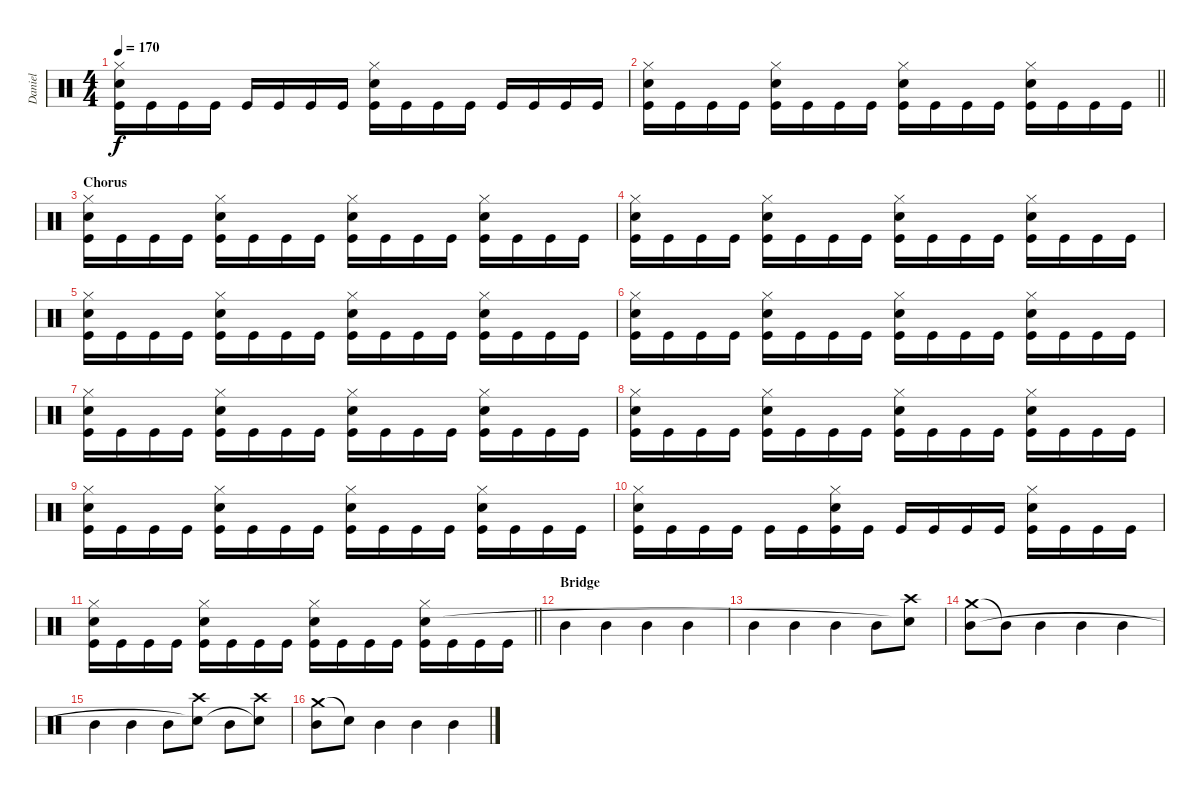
\track ("Daniel" "Daniel") {instrument percussion}
\staff {score}
\articulation defaults
\ts (4 4)
\tempo 170
\clef neutral
\ks c
("Kick (hit)" "Snare (hit) 2" "Hi-Hat (closed)").16{dy f} "Kick (hit)".16 "Kick (hit)".16 "Kick (hit)".16 "Kick (hit)".16 "Kick (hit)".16 "Kick (hit)".16 "Kick (hit)".16 ("Kick (hit)" "Snare (hit) 2" "Hi-Hat (closed)").16 "Kick (hit)".16 "Kick (hit)".16 "Kick (hit)".16 "Kick (hit)".16 "Kick (hit)".16 "Kick (hit)".16 "Kick (hit)".16 |
\barLineRight lightlight
("Kick (hit)" "Snare (hit) 2" "Hi-Hat (closed)").16 "Kick (hit)".16 "Kick (hit)".16 "Kick (hit)".16 ("Kick (hit)" "Snare (hit) 2" "Hi-Hat (closed)").16 "Kick (hit)".16 "Kick (hit)".16 "Kick (hit)".16 ("Kick (hit)" "Snare (hit) 2" "Hi-Hat (closed)").16 "Kick (hit)".16 "Kick (hit)".16 "Kick (hit)".16 ("Kick (hit)" "Snare (hit) 2" "Hi-Hat (closed)").16 "Kick (hit)".16 "Kick (hit)".16 "Kick (hit)".16 |
\section ("" "Chorus")
("Kick (hit)" "Snare (hit) 2" "Hi-Hat (closed)").16 "Kick (hit)".16 "Kick (hit)".16 "Kick (hit)".16 ("Kick (hit)" "Snare (hit) 2" "Hi-Hat (closed)").16 "Kick (hit)".16 "Kick (hit)".16 "Kick (hit)".16 ("Kick (hit)" "Snare (hit) 2" "Hi-Hat (closed)").16 "Kick (hit)".16 "Kick (hit)".16 "Kick (hit)".16 ("Kick (hit)" "Snare (hit) 2" "Hi-Hat (closed)").16 "Kick (hit)".16 "Kick (hit)".16 "Kick (hit)".16 |
("Kick (hit)" "Snare (hit) 2" "Hi-Hat (closed)").16 "Kick (hit)".16 "Kick (hit)".16 "Kick (hit)".16 ("Kick (hit)" "Snare (hit) 2" "Hi-Hat (closed)").16 "Kick (hit)".16 "Kick (hit)".16 "Kick (hit)".16 ("Kick (hit)" "Snare (hit) 2" "Hi-Hat (closed)").16 "Kick (hit)".16 "Kick (hit)".16 "Kick (hit)".16 ("Kick (hit)" "Snare (hit) 2" "Hi-Hat (closed)").16 "Kick (hit)".16 "Kick (hit)".16 "Kick (hit)".16 |
("Kick (hit)" "Snare (hit) 2" "Hi-Hat (closed)").16 "Kick (hit)".16 "Kick (hit)".16 "Kick (hit)".16 ("Kick (hit)" "Snare (hit) 2" "Hi-Hat (closed)").16 "Kick (hit)".16 "Kick (hit)".16 "Kick (hit)".16 ("Kick (hit)" "Snare (hit) 2" "Hi-Hat (closed)").16 "Kick (hit)".16 "Kick (hit)".16 "Kick (hit)".16 ("Kick (hit)" "Snare (hit) 2" "Hi-Hat (closed)").16 "Kick (hit)".16 "Kick (hit)".16 "Kick (hit)".16 |
("Kick (hit)" "Snare (hit) 2" "Hi-Hat (closed)").16 "Kick (hit)".16 "Kick (hit)".16 "Kick (hit)".16 ("Kick (hit)" "Snare (hit) 2" "Hi-Hat (closed)").16 "Kick (hit)".16 "Kick (hit)".16 "Kick (hit)".16 ("Kick (hit)" "Snare (hit) 2" "Hi-Hat (closed)").16 "Kick (hit)".16 "Kick (hit)".16 "Kick (hit)".16 ("Kick (hit)" "Snare (hit) 2" "Hi-Hat (closed)").16 "Kick (hit)".16 "Kick (hit)".16 "Kick (hit)".16 |
("Kick (hit)" "Snare (hit) 2" "Hi-Hat (closed)").16 "Kick (hit)".16 "Kick (hit)".16 "Kick (hit)".16 ("Kick (hit)" "Snare (hit) 2" "Hi-Hat (closed)").16 "Kick (hit)".16 "Kick (hit)".16 "Kick (hit)".16 ("Kick (hit)" "Snare (hit) 2" "Hi-Hat (closed)").16 "Kick (hit)".16 "Kick (hit)".16 "Kick (hit)".16 ("Kick (hit)" "Snare (hit) 2" "Hi-Hat (closed)").16 "Kick (hit)".16 "Kick (hit)".16 "Kick (hit)".16 |
("Kick (hit)" "Snare (hit) 2" "Hi-Hat (closed)").16 "Kick (hit)".16 "Kick (hit)".16 "Kick (hit)".16 ("Kick (hit)" "Snare (hit) 2" "Hi-Hat (closed)").16 "Kick (hit)".16 "Kick (hit)".16 "Kick (hit)".16 ("Kick (hit)" "Snare (hit) 2" "Hi-Hat (closed)").16 "Kick (hit)".16 "Kick (hit)".16 "Kick (hit)".16 ("Kick (hit)" "Snare (hit) 2" "Hi-Hat (closed)").16 "Kick (hit)".16 "Kick (hit)".16 "Kick (hit)".16 |
("Kick (hit)" "Snare (hit) 2" "Hi-Hat (closed)").16 "Kick (hit)".16 "Kick (hit)".16 "Kick (hit)".16 ("Kick (hit)" "Snare (hit) 2" "Hi-Hat (closed)").16 "Kick (hit)".16 "Kick (hit)".16 "Kick (hit)".16 ("Kick (hit)" "Snare (hit) 2" "Hi-Hat (closed)").16 "Kick (hit)".16 "Kick (hit)".16 "Kick (hit)".16 ("Kick (hit)" "Snare (hit) 2" "Hi-Hat (closed)").16 "Kick (hit)".16 "Kick (hit)".16 "Kick (hit)".16 |
("Kick (hit)" "Snare (hit) 2" "Hi-Hat (closed)").16 "Kick (hit)".16 "Kick (hit)".16 "Kick (hit)".16 "Kick (hit)".16 "Kick (hit)".16 ("Kick (hit)" "Snare (hit) 2" "Hi-Hat (closed)").16 "Kick (hit)".16 "Kick (hit)".16 "Kick (hit)".16 "Kick (hit)".16 "Kick (hit)".16 ("Kick (hit)" "Snare (hit) 2" "Hi-Hat (closed)").16 "Kick (hit)".16 "Kick (hit)".16 "Kick (hit)".16 |
\barLineRight lightlight
("Kick (hit)" "Snare (hit) 2" "Hi-Hat (closed)").16 "Kick (hit)".16 "Kick (hit)".16 "Kick (hit)".16 ("Kick (hit)" "Snare (hit) 2" "Hi-Hat (closed)").16 "Kick (hit)".16 "Kick (hit)".16 "Kick (hit)".16 ("Kick (hit)" "Snare (hit) 2" "Hi-Hat (closed)").16 "Kick (hit)".16 "Kick (hit)".16 "Kick (hit)".16 ("Kick (hit)" "Snare (hit) 2" "Hi-Hat (closed)").16 "Kick (hit)".16 "Kick (hit)".16 "Kick (hit)".16 |
\section ("" "Bridge")
"Mid Tom (hit)".4 "Mid Tom (hit)".4 "Mid Tom (hit)".4 "Mid Tom (hit)".4 |
"Mid Tom (hit)".4 "Mid Tom (hit)".4 "Mid Tom (hit)".4 "Mid Tom (hit)".8 ("Crash high (hit)" "Snare (hit)"{t}).8 |
("Crash medium (hit)" "Mid Tom (hit)").8 "Mid Tom (hit)"{t}.8 "Mid Tom (hit)".4 "Mid Tom (hit)".4 "Mid Tom (hit)".4 |
"Mid Tom (hit)".4 "Mid Tom (hit)".4 "Mid Tom (hit)".8 ("Crash high (hit)" "Snare (hit)"{t}).8 "Mid Tom (hit)".8 ("Crash high (hit)" "Snare (hit)"{t}).8 |
("Crash medium (hit)" "Mid Tom (hit)").8 "Snare (hit)"{t}.8 "Mid Tom (hit)".4 "Mid Tom (hit)".4 "Mid Tom (hit)".4
